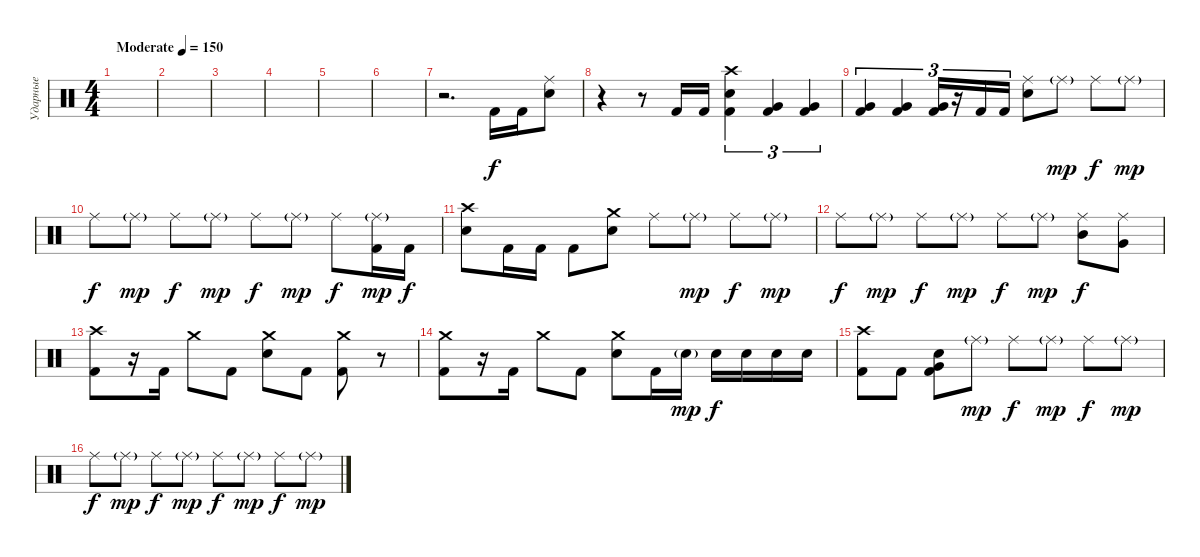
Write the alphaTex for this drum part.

\track ("Ударные" "Ударные") {instrument percussion}
\staff {score}
\articulation defaults
\ts (4 4)
\tempo (150 "Moderate")
\clef neutral
\ks c
|
|
|
|
|
|
r.2{d} "Kick (hit) 2".16 "Kick (hit) 2".16 ("Ride (middle)" "Electric Snare (hit)").8 |
r.4 r.8 "Kick (hit) 2".16 "Kick (hit) 2".16 ("Crash high (hit)" "Kick (hit) 2" "Electric Snare (hit)").4{tu (3 2)} ("Kick (hit) 2" "Very Low Tom (hit)").4{tu (3 2)} ("Kick (hit) 2" "Very Low Tom (hit)").4{tu (3 2)} |
("Very Low Tom (hit)" "Kick (hit) 2").4{tu (3 2)} ("Very Low Tom (hit)" "Kick (hit) 2").4{tu (3 2)} ("Very Low Tom (hit)" "Kick (hit) 2").16{tu (3 2)} r.16{tu (3 2)} "Kick (hit) 2".16{tu (3 2)} "Kick (hit) 2".16{tu (3 2)} ("Ride (middle)" "Electric Snare (hit)").8 "Ride (middle)"{g}.8{dy mp} "Ride (middle)".8{dy f} "Ride (middle)"{g}.8{dy mp} |
"Ride (middle)".8{dy f} "Ride (middle)"{g}.8{dy mp} "Ride (middle)".8{dy f} "Ride (middle)"{g}.8{dy mp} "Ride (middle)".8{dy f} "Ride (middle)"{g}.8{dy mp} "Ride (middle)".8{dy f} ("Ride (middle)"{g} "Kick (hit) 2").16{dy mp} "Kick (hit) 2".16{dy f} |
("Crash high (hit)" "Electric Snare (hit)").8 "Kick (hit) 2".16 "Kick (hit) 2".16 "Kick (hit) 2".8 ("Crash medium (hit)" "Electric Snare (hit)").8 "Ride (middle)".8 "Ride (middle)"{g}.8{dy mp} "Ride (middle)".8{dy f} "Ride (middle)"{g}.8{dy mp} |
"Ride (middle)".8{dy f} "Ride (middle)"{g}.8{dy mp} "Ride (middle)".8{dy f} "Ride (middle)"{g}.8{dy mp} "Ride (middle)".8{dy f} "Ride (middle)"{g}.8{dy mp} ("Ride (middle)" "Mid Tom (hit)").8{dy f} ("Ride (middle)" "Very Low Tom (hit)").8 |
("Crash high (hit)" "Kick (hit) 2").8 r.16 "Kick (hit) 2".16 "Crash medium (hit)".8 "Kick (hit) 2".8 ("Crash medium (hit)" "Electric Snare (hit)").8 "Kick (hit) 2".8 ("Crash medium (hit)" "Kick (hit) 2").8 r.8 |
("Crash medium (hit)" "Kick (hit) 2").8 r.16 "Kick (hit) 2".16 "Crash medium (hit)".8 "Kick (hit) 2".8 ("Crash medium (hit)" "Electric Snare (hit)").8 "Kick (hit) 2".16 "Electric Snare (hit)"{g}.16{dy mp} "Electric Snare (hit)".16{dy f} "Electric Snare (hit)".16 "Electric Snare (hit)".16 "Electric Snare (hit)".16 |
("Crash high (hit)" "Kick (hit) 2").8 "Kick (hit) 2".8 ("Very Low Tom (hit)" "Electric Snare (hit)" "Kick (hit) 2").8 "Ride (middle)"{g}.8{dy mp} "Ride (middle)".8{dy f} "Ride (middle)"{g}.8{dy mp} "Ride (middle)".8{dy f} "Ride (middle)"{g}.8{dy mp} |
"Ride (middle)".8{dy f} "Ride (middle)"{g}.8{dy mp} "Ride (middle)".8{dy f} "Ride (middle)"{g}.8{dy mp} "Ride (middle)".8{dy f} "Ride (middle)"{g}.8{dy mp} "Ride (middle)".8{dy f} "Ride (middle)"{g}.8{dy mp}
